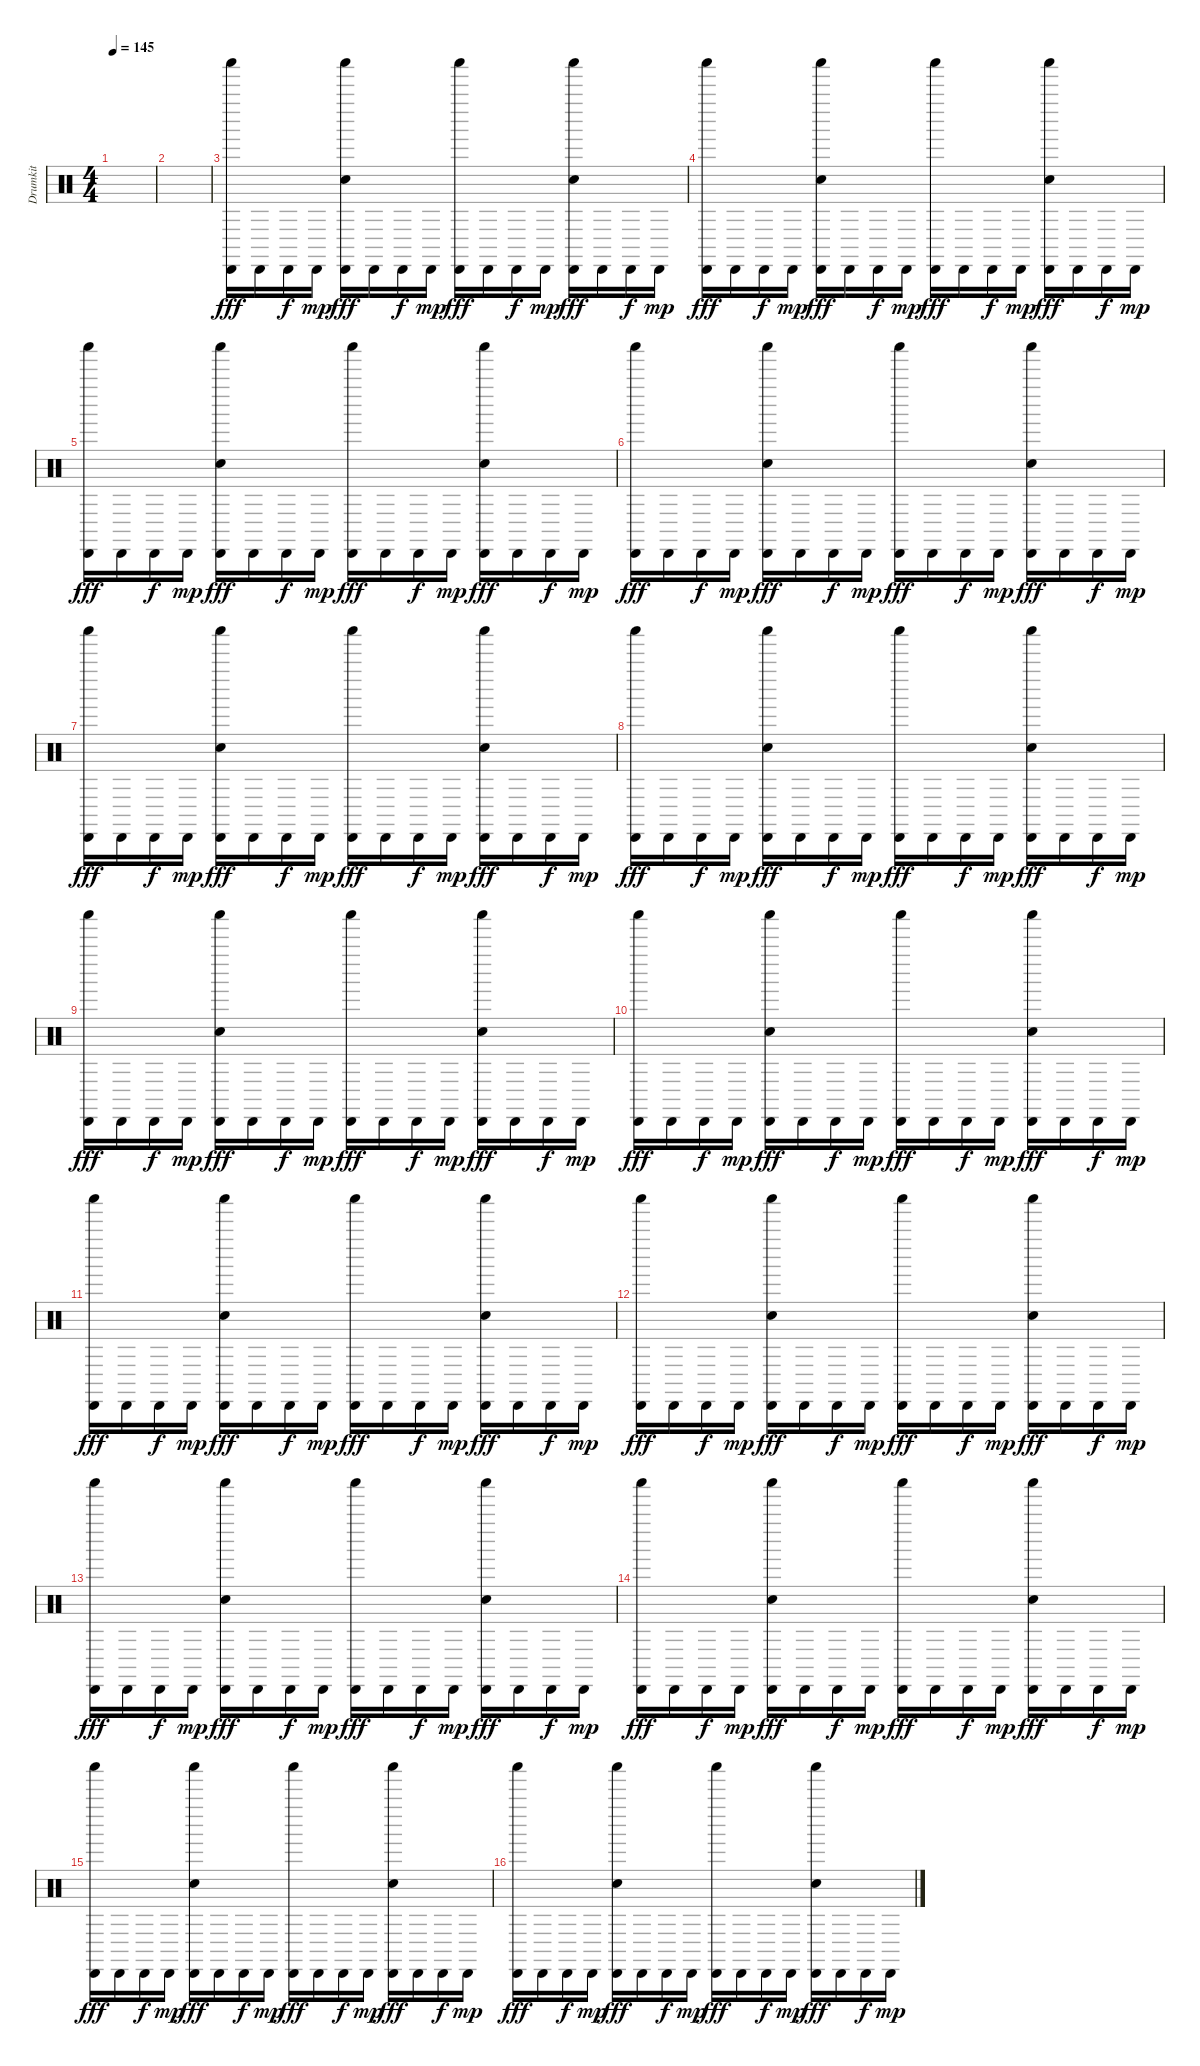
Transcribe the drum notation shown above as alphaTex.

\track ("Drumkit" "Drumkit") {instrument percussion}
\staff {score}
\articulation defaults
\ts (4 4)
\tempo 145
\clef neutral
\ks c
|
|
("Shaker (hit)" "Cabasa (hit)").16{dy fff} "Cabasa (hit)".16 "Cabasa (hit)".16{dy f} "Cabasa (hit)".16{dy mp} ("Shaker (hit)" "Snare (hit) 2" "Cabasa (hit)").16{dy fff} "Cabasa (hit)".16 "Cabasa (hit)".16{dy f} "Cabasa (hit)".16{dy mp} ("Shaker (hit)" "Cabasa (hit)").16{dy fff} "Cabasa (hit)".16 "Cabasa (hit)".16{dy f} "Cabasa (hit)".16{dy mp} ("Shaker (hit)" "Snare (hit) 2" "Cabasa (hit)").16{dy fff} "Cabasa (hit)".16 "Cabasa (hit)".16{dy f} "Cabasa (hit)".16{dy mp} |
("Shaker (hit)" "Cabasa (hit)").16{dy fff} "Cabasa (hit)".16 "Cabasa (hit)".16{dy f} "Cabasa (hit)".16{dy mp} ("Shaker (hit)" "Snare (hit) 2" "Cabasa (hit)").16{dy fff} "Cabasa (hit)".16 "Cabasa (hit)".16{dy f} "Cabasa (hit)".16{dy mp} ("Shaker (hit)" "Cabasa (hit)").16{dy fff} "Cabasa (hit)".16 "Cabasa (hit)".16{dy f} "Cabasa (hit)".16{dy mp} ("Shaker (hit)" "Snare (hit) 2" "Cabasa (hit)").16{dy fff} "Cabasa (hit)".16 "Cabasa (hit)".16{dy f} "Cabasa (hit)".16{dy mp} |
("Shaker (hit)" "Cabasa (hit)").16{dy fff} "Cabasa (hit)".16 "Cabasa (hit)".16{dy f} "Cabasa (hit)".16{dy mp} ("Shaker (hit)" "Snare (hit) 2" "Cabasa (hit)").16{dy fff} "Cabasa (hit)".16 "Cabasa (hit)".16{dy f} "Cabasa (hit)".16{dy mp} ("Shaker (hit)" "Cabasa (hit)").16{dy fff} "Cabasa (hit)".16 "Cabasa (hit)".16{dy f} "Cabasa (hit)".16{dy mp} ("Shaker (hit)" "Snare (hit) 2" "Cabasa (hit)").16{dy fff} "Cabasa (hit)".16 "Cabasa (hit)".16{dy f} "Cabasa (hit)".16{dy mp} |
("Shaker (hit)" "Cabasa (hit)").16{dy fff} "Cabasa (hit)".16 "Cabasa (hit)".16{dy f} "Cabasa (hit)".16{dy mp} ("Shaker (hit)" "Snare (hit) 2" "Cabasa (hit)").16{dy fff} "Cabasa (hit)".16 "Cabasa (hit)".16{dy f} "Cabasa (hit)".16{dy mp} ("Shaker (hit)" "Cabasa (hit)").16{dy fff} "Cabasa (hit)".16 "Cabasa (hit)".16{dy f} "Cabasa (hit)".16{dy mp} ("Shaker (hit)" "Snare (hit) 2" "Cabasa (hit)").16{dy fff} "Cabasa (hit)".16 "Cabasa (hit)".16{dy f} "Cabasa (hit)".16{dy mp} |
("Shaker (hit)" "Cabasa (hit)").16{dy fff} "Cabasa (hit)".16 "Cabasa (hit)".16{dy f} "Cabasa (hit)".16{dy mp} ("Shaker (hit)" "Snare (hit) 2" "Cabasa (hit)").16{dy fff} "Cabasa (hit)".16 "Cabasa (hit)".16{dy f} "Cabasa (hit)".16{dy mp} ("Shaker (hit)" "Cabasa (hit)").16{dy fff} "Cabasa (hit)".16 "Cabasa (hit)".16{dy f} "Cabasa (hit)".16{dy mp} ("Shaker (hit)" "Snare (hit) 2" "Cabasa (hit)").16{dy fff} "Cabasa (hit)".16 "Cabasa (hit)".16{dy f} "Cabasa (hit)".16{dy mp} |
("Shaker (hit)" "Cabasa (hit)").16{dy fff} "Cabasa (hit)".16 "Cabasa (hit)".16{dy f} "Cabasa (hit)".16{dy mp} ("Shaker (hit)" "Snare (hit) 2" "Cabasa (hit)").16{dy fff} "Cabasa (hit)".16 "Cabasa (hit)".16{dy f} "Cabasa (hit)".16{dy mp} ("Shaker (hit)" "Cabasa (hit)").16{dy fff} "Cabasa (hit)".16 "Cabasa (hit)".16{dy f} "Cabasa (hit)".16{dy mp} ("Shaker (hit)" "Snare (hit) 2" "Cabasa (hit)").16{dy fff} "Cabasa (hit)".16 "Cabasa (hit)".16{dy f} "Cabasa (hit)".16{dy mp} |
("Shaker (hit)" "Cabasa (hit)").16{dy fff} "Cabasa (hit)".16 "Cabasa (hit)".16{dy f} "Cabasa (hit)".16{dy mp} ("Shaker (hit)" "Snare (hit) 2" "Cabasa (hit)").16{dy fff} "Cabasa (hit)".16 "Cabasa (hit)".16{dy f} "Cabasa (hit)".16{dy mp} ("Shaker (hit)" "Cabasa (hit)").16{dy fff} "Cabasa (hit)".16 "Cabasa (hit)".16{dy f} "Cabasa (hit)".16{dy mp} ("Shaker (hit)" "Snare (hit) 2" "Cabasa (hit)").16{dy fff} "Cabasa (hit)".16 "Cabasa (hit)".16{dy f} "Cabasa (hit)".16{dy mp} |
("Shaker (hit)" "Cabasa (hit)").16{dy fff} "Cabasa (hit)".16 "Cabasa (hit)".16{dy f} "Cabasa (hit)".16{dy mp} ("Shaker (hit)" "Snare (hit) 2" "Cabasa (hit)").16{dy fff} "Cabasa (hit)".16 "Cabasa (hit)".16{dy f} "Cabasa (hit)".16{dy mp} ("Shaker (hit)" "Cabasa (hit)").16{dy fff} "Cabasa (hit)".16 "Cabasa (hit)".16{dy f} "Cabasa (hit)".16{dy mp} ("Shaker (hit)" "Snare (hit) 2" "Cabasa (hit)").16{dy fff} "Cabasa (hit)".16 "Cabasa (hit)".16{dy f} "Cabasa (hit)".16{dy mp} |
("Shaker (hit)" "Cabasa (hit)").16{dy fff} "Cabasa (hit)".16 "Cabasa (hit)".16{dy f} "Cabasa (hit)".16{dy mp} ("Shaker (hit)" "Snare (hit) 2" "Cabasa (hit)").16{dy fff} "Cabasa (hit)".16 "Cabasa (hit)".16{dy f} "Cabasa (hit)".16{dy mp} ("Shaker (hit)" "Cabasa (hit)").16{dy fff} "Cabasa (hit)".16 "Cabasa (hit)".16{dy f} "Cabasa (hit)".16{dy mp} ("Shaker (hit)" "Snare (hit) 2" "Cabasa (hit)").16{dy fff} "Cabasa (hit)".16 "Cabasa (hit)".16{dy f} "Cabasa (hit)".16{dy mp} |
("Shaker (hit)" "Cabasa (hit)").16{dy fff} "Cabasa (hit)".16 "Cabasa (hit)".16{dy f} "Cabasa (hit)".16{dy mp} ("Shaker (hit)" "Snare (hit) 2" "Cabasa (hit)").16{dy fff} "Cabasa (hit)".16 "Cabasa (hit)".16{dy f} "Cabasa (hit)".16{dy mp} ("Shaker (hit)" "Cabasa (hit)").16{dy fff} "Cabasa (hit)".16 "Cabasa (hit)".16{dy f} "Cabasa (hit)".16{dy mp} ("Shaker (hit)" "Snare (hit) 2" "Cabasa (hit)").16{dy fff} "Cabasa (hit)".16 "Cabasa (hit)".16{dy f} "Cabasa (hit)".16{dy mp} |
("Shaker (hit)" "Cabasa (hit)").16{dy fff} "Cabasa (hit)".16 "Cabasa (hit)".16{dy f} "Cabasa (hit)".16{dy mp} ("Shaker (hit)" "Snare (hit) 2" "Cabasa (hit)").16{dy fff} "Cabasa (hit)".16 "Cabasa (hit)".16{dy f} "Cabasa (hit)".16{dy mp} ("Shaker (hit)" "Cabasa (hit)").16{dy fff} "Cabasa (hit)".16 "Cabasa (hit)".16{dy f} "Cabasa (hit)".16{dy mp} ("Shaker (hit)" "Snare (hit) 2" "Cabasa (hit)").16{dy fff} "Cabasa (hit)".16 "Cabasa (hit)".16{dy f} "Cabasa (hit)".16{dy mp} |
("Shaker (hit)" "Cabasa (hit)").16{dy fff} "Cabasa (hit)".16 "Cabasa (hit)".16{dy f} "Cabasa (hit)".16{dy mp} ("Shaker (hit)" "Snare (hit) 2" "Cabasa (hit)").16{dy fff} "Cabasa (hit)".16 "Cabasa (hit)".16{dy f} "Cabasa (hit)".16{dy mp} ("Shaker (hit)" "Cabasa (hit)").16{dy fff} "Cabasa (hit)".16 "Cabasa (hit)".16{dy f} "Cabasa (hit)".16{dy mp} ("Shaker (hit)" "Snare (hit) 2" "Cabasa (hit)").16{dy fff} "Cabasa (hit)".16 "Cabasa (hit)".16{dy f} "Cabasa (hit)".16{dy mp} |
("Shaker (hit)" "Cabasa (hit)").16{dy fff} "Cabasa (hit)".16 "Cabasa (hit)".16{dy f} "Cabasa (hit)".16{dy mp} ("Shaker (hit)" "Snare (hit) 2" "Cabasa (hit)").16{dy fff} "Cabasa (hit)".16 "Cabasa (hit)".16{dy f} "Cabasa (hit)".16{dy mp} ("Shaker (hit)" "Cabasa (hit)").16{dy fff} "Cabasa (hit)".16 "Cabasa (hit)".16{dy f} "Cabasa (hit)".16{dy mp} ("Shaker (hit)" "Snare (hit) 2" "Cabasa (hit)").16{dy fff} "Cabasa (hit)".16 "Cabasa (hit)".16{dy f} "Cabasa (hit)".16{dy mp} |
("Shaker (hit)" "Cabasa (hit)").16{dy fff} "Cabasa (hit)".16 "Cabasa (hit)".16{dy f} "Cabasa (hit)".16{dy mp} ("Shaker (hit)" "Snare (hit) 2" "Cabasa (hit)").16{dy fff} "Cabasa (hit)".16 "Cabasa (hit)".16{dy f} "Cabasa (hit)".16{dy mp} ("Shaker (hit)" "Cabasa (hit)").16{dy fff} "Cabasa (hit)".16 "Cabasa (hit)".16{dy f} "Cabasa (hit)".16{dy mp} ("Shaker (hit)" "Snare (hit) 2" "Cabasa (hit)").16{dy fff} "Cabasa (hit)".16 "Cabasa (hit)".16{dy f} "Cabasa (hit)".16{dy mp}
